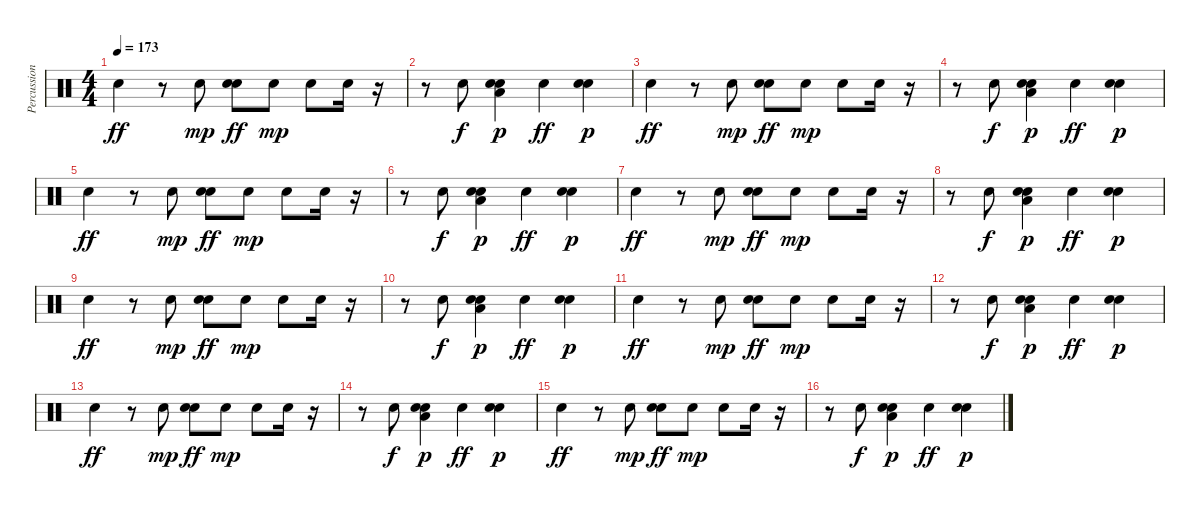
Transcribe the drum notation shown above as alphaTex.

\track ("Percussion" "Percussion") {instrument percussion}
\staff {score}
\articulation defaults
\ts (4 4)
\tempo 173
\clef neutral
\ks c "Hand Clap (hit)".4{dy ff}
r.8 "Hand Clap (hit)".8{dy mp} ("Snare (hit) 2" "Hand Clap (hit)").8{dy ff} "Hand Clap (hit)".8{dy mp} "Hand Clap (hit)".8 "Hand Clap (hit)".16 r.16 |
r.8 "Hand Clap (hit)".8{dy f} ("Hand Clap (hit)" "Snare (hit) 2" "Low Floor Tom (hit)").4{dy p} "Hand Clap (hit)".4{dy ff} ("Snare (hit) 2" "Hand Clap (hit)").4{dy p} |
"Hand Clap (hit)".4{dy ff} r.8 "Hand Clap (hit)".8{dy mp} ("Snare (hit) 2" "Hand Clap (hit)").8{dy ff} "Hand Clap (hit)".8{dy mp} "Hand Clap (hit)".8 "Hand Clap (hit)".16 r.16 |
r.8 "Hand Clap (hit)".8{dy f} ("Hand Clap (hit)" "Snare (hit) 2" "Low Floor Tom (hit)").4{dy p} "Hand Clap (hit)".4{dy ff} ("Snare (hit) 2" "Hand Clap (hit)").4{dy p} |
"Hand Clap (hit)".4{dy ff} r.8 "Hand Clap (hit)".8{dy mp} ("Snare (hit) 2" "Hand Clap (hit)").8{dy ff} "Hand Clap (hit)".8{dy mp} "Hand Clap (hit)".8 "Hand Clap (hit)".16 r.16 |
r.8 "Hand Clap (hit)".8{dy f} ("Hand Clap (hit)" "Snare (hit) 2" "Low Floor Tom (hit)").4{dy p} "Hand Clap (hit)".4{dy ff} ("Snare (hit) 2" "Hand Clap (hit)").4{dy p} |
"Hand Clap (hit)".4{dy ff} r.8 "Hand Clap (hit)".8{dy mp} ("Snare (hit) 2" "Hand Clap (hit)").8{dy ff} "Hand Clap (hit)".8{dy mp} "Hand Clap (hit)".8 "Hand Clap (hit)".16 r.16 |
r.8 "Hand Clap (hit)".8{dy f} ("Hand Clap (hit)" "Snare (hit) 2" "Low Floor Tom (hit)").4{dy p} "Hand Clap (hit)".4{dy ff} ("Snare (hit) 2" "Hand Clap (hit)").4{dy p} |
"Hand Clap (hit)".4{dy ff} r.8 "Hand Clap (hit)".8{dy mp} ("Snare (hit) 2" "Hand Clap (hit)").8{dy ff} "Hand Clap (hit)".8{dy mp} "Hand Clap (hit)".8 "Hand Clap (hit)".16 r.16 |
r.8 "Hand Clap (hit)".8{dy f} ("Hand Clap (hit)" "Snare (hit) 2" "Low Floor Tom (hit)").4{dy p} "Hand Clap (hit)".4{dy ff} ("Snare (hit) 2" "Hand Clap (hit)").4{dy p} |
"Hand Clap (hit)".4{dy ff} r.8 "Hand Clap (hit)".8{dy mp} ("Snare (hit) 2" "Hand Clap (hit)").8{dy ff} "Hand Clap (hit)".8{dy mp} "Hand Clap (hit)".8 "Hand Clap (hit)".16 r.16 |
r.8 "Hand Clap (hit)".8{dy f} ("Hand Clap (hit)" "Snare (hit) 2" "Low Floor Tom (hit)").4{dy p} "Hand Clap (hit)".4{dy ff} ("Snare (hit) 2" "Hand Clap (hit)").4{dy p} |
"Hand Clap (hit)".4{dy ff} r.8 "Hand Clap (hit)".8{dy mp} ("Snare (hit) 2" "Hand Clap (hit)").8{dy ff} "Hand Clap (hit)".8{dy mp} "Hand Clap (hit)".8 "Hand Clap (hit)".16 r.16 |
r.8 "Hand Clap (hit)".8{dy f} ("Hand Clap (hit)" "Snare (hit) 2" "Low Floor Tom (hit)").4{dy p} "Hand Clap (hit)".4{dy ff} ("Snare (hit) 2" "Hand Clap (hit)").4{dy p} |
"Hand Clap (hit)".4{dy ff} r.8 "Hand Clap (hit)".8{dy mp} ("Snare (hit) 2" "Hand Clap (hit)").8{dy ff} "Hand Clap (hit)".8{dy mp} "Hand Clap (hit)".8 "Hand Clap (hit)".16 r.16 |
r.8 "Hand Clap (hit)".8{dy f} ("Hand Clap (hit)" "Snare (hit) 2" "Low Floor Tom (hit)").4{dy p} "Hand Clap (hit)".4{dy ff} ("Snare (hit) 2" "Hand Clap (hit)").4{dy p}
